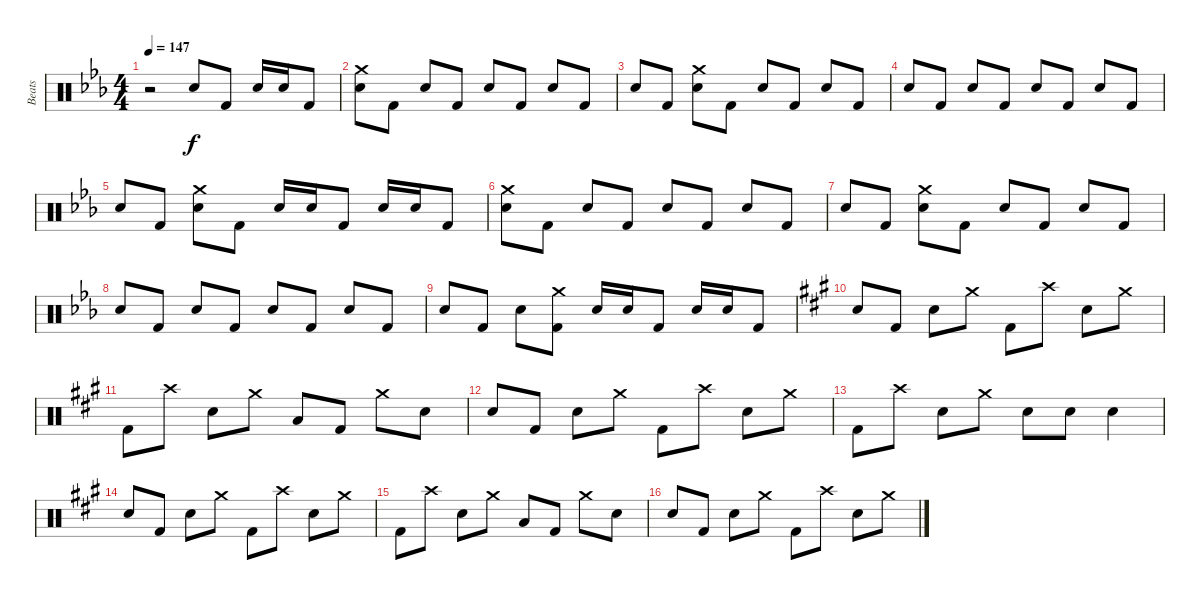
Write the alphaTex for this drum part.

\track ("Beats" "Beats") {instrument percussion}
\staff {score}
\articulation defaults
\ts (4 4)
\tempo 147
\clef neutral
\ks eb
r.2{dy f} "Snare (hit) 2".8 "Kick (hit) 2".8 "Snare (hit) 2".16 "Snare (hit) 2".16 "Kick (hit) 2".8 |
("Crash medium (hit)" "Snare (hit) 2").8 "Kick (hit) 2".8 "Snare (hit) 2".8 "Kick (hit) 2".8 "Snare (hit) 2".8 "Kick (hit) 2".8 "Snare (hit) 2".8 "Kick (hit) 2".8 |
"Snare (hit) 2".8 "Kick (hit) 2".8 ("Crash medium (hit)" "Snare (hit) 2").8 "Kick (hit) 2".8 "Snare (hit) 2".8 "Kick (hit) 2".8 "Snare (hit) 2".8 "Kick (hit) 2".8 |
"Snare (hit) 2".8 "Kick (hit) 2".8 "Snare (hit) 2".8 "Kick (hit) 2".8 "Snare (hit) 2".8 "Kick (hit) 2".8 "Snare (hit) 2".8 "Kick (hit) 2".8 |
"Snare (hit) 2".8 "Kick (hit) 2".8 ("Crash medium (hit)" "Snare (hit) 2").8 "Kick (hit) 2".8 "Snare (hit) 2".16 "Snare (hit) 2".16 "Kick (hit) 2".8 "Snare (hit) 2".16 "Snare (hit) 2".16 "Kick (hit) 2".8 |
("Crash medium (hit)" "Snare (hit) 2").8 "Kick (hit) 2".8 "Snare (hit) 2".8 "Kick (hit) 2".8 "Snare (hit) 2".8 "Kick (hit) 2".8 "Snare (hit) 2".8 "Kick (hit) 2".8 |
"Snare (hit) 2".8 "Kick (hit) 2".8 ("Crash medium (hit)" "Snare (hit) 2").8 "Kick (hit) 2".8 "Snare (hit) 2".8 "Kick (hit) 2".8 "Snare (hit) 2".8 "Kick (hit) 2".8 |
"Snare (hit) 2".8 "Kick (hit) 2".8 "Snare (hit) 2".8 "Kick (hit) 2".8 "Snare (hit) 2".8 "Kick (hit) 2".8 "Snare (hit) 2".8 "Kick (hit) 2".8 |
"Snare (hit) 2".8 "Kick (hit) 2".8 "Snare (hit) 2".8 ("Crash medium (hit)" "Kick (hit) 2").8 "Snare (hit) 2".16 "Snare (hit) 2".16 "Kick (hit) 2".8 "Snare (hit) 2".16 "Snare (hit) 2".16 "Kick (hit) 2".8 |
\ks a "Snare (hit) 2".8 "Kick (hit) 2".8 "Snare (hit) 2".8 "Crash medium (hit)".8 "Kick (hit) 2".8 "Crash high (hit)".8 "Snare (hit) 2".8 "Crash medium (hit)".8
|
"Kick (hit) 2".8 "Crash high (hit)".8 "Snare (hit) 2".8 "Crash medium (hit)".8 "Low Tom (hit)".8 "Kick (hit) 2".8 "Crash medium (hit)".8 "Snare (hit) 2".8 |
"Snare (hit) 2".8 "Kick (hit) 2".8 "Snare (hit) 2".8 "Crash medium (hit)".8 "Kick (hit) 2".8 "Crash high (hit)".8 "Snare (hit) 2".8 "Crash medium (hit)".8 |
"Kick (hit) 2".8 "Crash high (hit)".8 "Snare (hit) 2".8 "Crash medium (hit)".8 "Snare (hit) 2".8 "Snare (hit) 2".8 "Snare (hit) 2".4 |
"Snare (hit) 2".8 "Kick (hit) 2".8 "Snare (hit) 2".8 "Crash medium (hit)".8 "Kick (hit) 2".8 "Crash high (hit)".8 "Snare (hit) 2".8 "Crash medium (hit)".8 |
"Kick (hit) 2".8 "Crash high (hit)".8 "Snare (hit) 2".8 "Crash medium (hit)".8 "Low Tom (hit)".8 "Kick (hit) 2".8 "Crash medium (hit)".8 "Snare (hit) 2".8 |
"Snare (hit) 2".8 "Kick (hit) 2".8 "Snare (hit) 2".8 "Crash medium (hit)".8 "Kick (hit) 2".8 "Crash high (hit)".8 "Snare (hit) 2".8 "Crash medium (hit)".8
